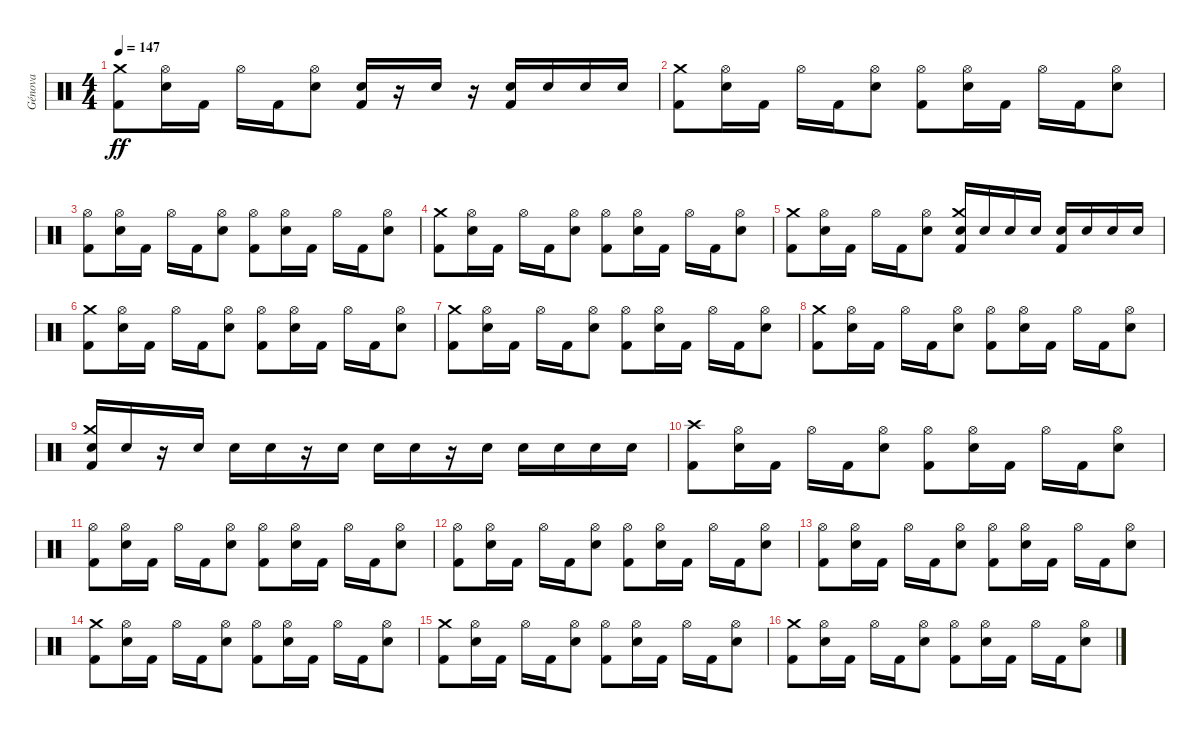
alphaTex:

\track ("Génova" "Génova") {instrument percussion}
\staff {score}
\articulation defaults
\ts (4 4)
\tempo 147
\clef neutral
\ks c
("Kick (hit) 2" "Crash medium (hit)").8{dy ff} ("Electric Snare (hit)" "Hi-Hat (open)").16 "Kick (hit) 2".16 "Hi-Hat (open)".16 "Kick (hit) 2".16 ("Electric Snare (hit)" "Hi-Hat (open)").8 ("Electric Snare (hit)" "Kick (hit) 2").16 r.16 "Electric Snare (hit)".16 r.16 ("Electric Snare (hit)" "Kick (hit) 2").16 "Electric Snare (hit)".16 "Electric Snare (hit)".16 "Electric Snare (hit)".16 |
("Kick (hit) 2" "Crash medium (hit)").8 ("Electric Snare (hit)" "Hi-Hat (open)").16 "Kick (hit) 2".16 "Hi-Hat (open)".16 "Kick (hit) 2".16 ("Electric Snare (hit)" "Hi-Hat (open)").8 ("Kick (hit) 2" "Hi-Hat (open)").8 ("Electric Snare (hit)" "Hi-Hat (open)").16 "Kick (hit) 2".16 "Hi-Hat (open)".16 "Kick (hit) 2".16 ("Electric Snare (hit)" "Hi-Hat (open)").8 |
("Kick (hit) 2" "Hi-Hat (open)").8 ("Electric Snare (hit)" "Hi-Hat (open)").16 "Kick (hit) 2".16 "Hi-Hat (open)".16 "Kick (hit) 2".16 ("Electric Snare (hit)" "Hi-Hat (open)").8 ("Kick (hit) 2" "Hi-Hat (open)").8 ("Electric Snare (hit)" "Hi-Hat (open)").16 "Kick (hit) 2".16 "Hi-Hat (open)".16 "Kick (hit) 2".16 ("Electric Snare (hit)" "Hi-Hat (open)").8 |
("Kick (hit) 2" "Crash medium (hit)").8 ("Electric Snare (hit)" "Hi-Hat (open)").16 "Kick (hit) 2".16 "Hi-Hat (open)".16 "Kick (hit) 2".16 ("Electric Snare (hit)" "Hi-Hat (open)").8 ("Kick (hit) 2" "Hi-Hat (open)").8 ("Electric Snare (hit)" "Hi-Hat (open)").16 "Kick (hit) 2".16 "Hi-Hat (open)".16 "Kick (hit) 2".16 ("Electric Snare (hit)" "Hi-Hat (open)").8 |
("Kick (hit) 2" "Crash medium (hit)").8 ("Electric Snare (hit)" "Hi-Hat (open)").16 "Kick (hit) 2".16 "Hi-Hat (open)".16 "Kick (hit) 2".16 ("Electric Snare (hit)" "Hi-Hat (open)").8 ("Crash medium (hit)" "Electric Snare (hit)" "Kick (hit) 2").16 "Electric Snare (hit)".16 "Electric Snare (hit)".16 "Electric Snare (hit)".16 ("Electric Snare (hit)" "Kick (hit) 2").16 "Electric Snare (hit)".16 "Electric Snare (hit)".16 "Electric Snare (hit)".16 |
("Kick (hit) 2" "Crash medium (hit)").8 ("Electric Snare (hit)" "Hi-Hat (open)").16 "Kick (hit) 2".16 "Hi-Hat (open)".16 "Kick (hit) 2".16 ("Electric Snare (hit)" "Hi-Hat (open)").8 ("Kick (hit) 2" "Hi-Hat (open)").8 ("Electric Snare (hit)" "Hi-Hat (open)").16 "Kick (hit) 2".16 "Hi-Hat (open)".16 "Kick (hit) 2".16 ("Electric Snare (hit)" "Hi-Hat (open)").8 |
("Kick (hit) 2" "Crash medium (hit)").8 ("Electric Snare (hit)" "Hi-Hat (open)").16 "Kick (hit) 2".16 "Hi-Hat (open)".16 "Kick (hit) 2".16 ("Electric Snare (hit)" "Hi-Hat (open)").8 ("Kick (hit) 2" "Hi-Hat (open)").8 ("Electric Snare (hit)" "Hi-Hat (open)").16 "Kick (hit) 2".16 "Hi-Hat (open)".16 "Kick (hit) 2".16 ("Electric Snare (hit)" "Hi-Hat (open)").8 |
("Kick (hit) 2" "Crash medium (hit)").8 ("Electric Snare (hit)" "Hi-Hat (open)").16 "Kick (hit) 2".16 "Hi-Hat (open)".16 "Kick (hit) 2".16 ("Electric Snare (hit)" "Hi-Hat (open)").8 ("Kick (hit) 2" "Hi-Hat (open)").8 ("Electric Snare (hit)" "Hi-Hat (open)").16 "Kick (hit) 2".16 "Hi-Hat (open)".16 "Kick (hit) 2".16 ("Electric Snare (hit)" "Hi-Hat (open)").8 |
("Kick (hit) 2" "Crash medium (hit)" "Electric Snare (hit)").16 "Electric Snare (hit)".16 r.16 "Electric Snare (hit)".16 "Electric Snare (hit)".16 "Electric Snare (hit)".16 r.16 "Electric Snare (hit)".16 "Electric Snare (hit)".16 "Electric Snare (hit)".16 r.16 "Electric Snare (hit)".16 "Electric Snare (hit)".16 "Electric Snare (hit)".16 "Electric Snare (hit)".16 "Electric Snare (hit)".16 |
("Kick (hit) 2" "Crash high (hit)").8 ("Electric Snare (hit)" "Hi-Hat (open)").16 "Kick (hit) 2".16 "Hi-Hat (open)".16 "Kick (hit) 2".16 ("Electric Snare (hit)" "Hi-Hat (open)").8 ("Kick (hit) 2" "Hi-Hat (open)").8 ("Electric Snare (hit)" "Hi-Hat (open)").16 "Kick (hit) 2".16 "Hi-Hat (open)".16 "Kick (hit) 2".16 ("Electric Snare (hit)" "Hi-Hat (open)").8 |
("Kick (hit) 2" "Hi-Hat (open)").8 ("Electric Snare (hit)" "Hi-Hat (open)").16 "Kick (hit) 2".16 "Hi-Hat (open)".16 "Kick (hit) 2".16 ("Electric Snare (hit)" "Hi-Hat (open)").8 ("Kick (hit) 2" "Hi-Hat (open)").8 ("Electric Snare (hit)" "Hi-Hat (open)").16 "Kick (hit) 2".16 "Hi-Hat (open)".16 "Kick (hit) 2".16 ("Electric Snare (hit)" "Hi-Hat (open)").8 |
("Kick (hit) 2" "Hi-Hat (open)").8 ("Electric Snare (hit)" "Hi-Hat (open)").16 "Kick (hit) 2".16 "Hi-Hat (open)".16 "Kick (hit) 2".16 ("Electric Snare (hit)" "Hi-Hat (open)").8 ("Kick (hit) 2" "Hi-Hat (open)").8 ("Electric Snare (hit)" "Hi-Hat (open)").16 "Kick (hit) 2".16 "Hi-Hat (open)".16 "Kick (hit) 2".16 ("Electric Snare (hit)" "Hi-Hat (open)").8 |
("Kick (hit) 2" "Hi-Hat (open)").8 ("Electric Snare (hit)" "Hi-Hat (open)").16 "Kick (hit) 2".16 "Hi-Hat (open)".16 "Kick (hit) 2".16 ("Electric Snare (hit)" "Hi-Hat (open)").8 ("Kick (hit) 2" "Hi-Hat (open)").8 ("Electric Snare (hit)" "Hi-Hat (open)").16 "Kick (hit) 2".16 "Hi-Hat (open)".16 "Kick (hit) 2".16 ("Electric Snare (hit)" "Hi-Hat (open)").8 |
("Kick (hit) 2" "Crash medium (hit)").8 ("Electric Snare (hit)" "Hi-Hat (open)").16 "Kick (hit) 2".16 "Hi-Hat (open)".16 "Kick (hit) 2".16 ("Electric Snare (hit)" "Hi-Hat (open)").8 ("Hi-Hat (open)" "Kick (hit) 2").8 ("Electric Snare (hit)" "Hi-Hat (open)").16 "Kick (hit) 2".16 "Hi-Hat (open)".16 "Kick (hit) 2".16 ("Electric Snare (hit)" "Hi-Hat (open)").8 |
("Kick (hit) 2" "Crash medium (hit)").8 ("Electric Snare (hit)" "Hi-Hat (open)").16 "Kick (hit) 2".16 "Hi-Hat (open)".16 "Kick (hit) 2".16 ("Electric Snare (hit)" "Hi-Hat (open)").8 ("Hi-Hat (open)" "Kick (hit) 2").8 ("Electric Snare (hit)" "Hi-Hat (open)").16 "Kick (hit) 2".16 "Hi-Hat (open)".16 "Kick (hit) 2".16 ("Electric Snare (hit)" "Hi-Hat (open)").8 |
("Kick (hit) 2" "Crash medium (hit)").8 ("Electric Snare (hit)" "Hi-Hat (open)").16 "Kick (hit) 2".16 "Hi-Hat (open)".16 "Kick (hit) 2".16 ("Electric Snare (hit)" "Hi-Hat (open)").8 ("Hi-Hat (open)" "Kick (hit) 2").8 ("Electric Snare (hit)" "Hi-Hat (open)").16 "Kick (hit) 2".16 "Hi-Hat (open)".16 "Kick (hit) 2".16 ("Electric Snare (hit)" "Hi-Hat (open)").8
